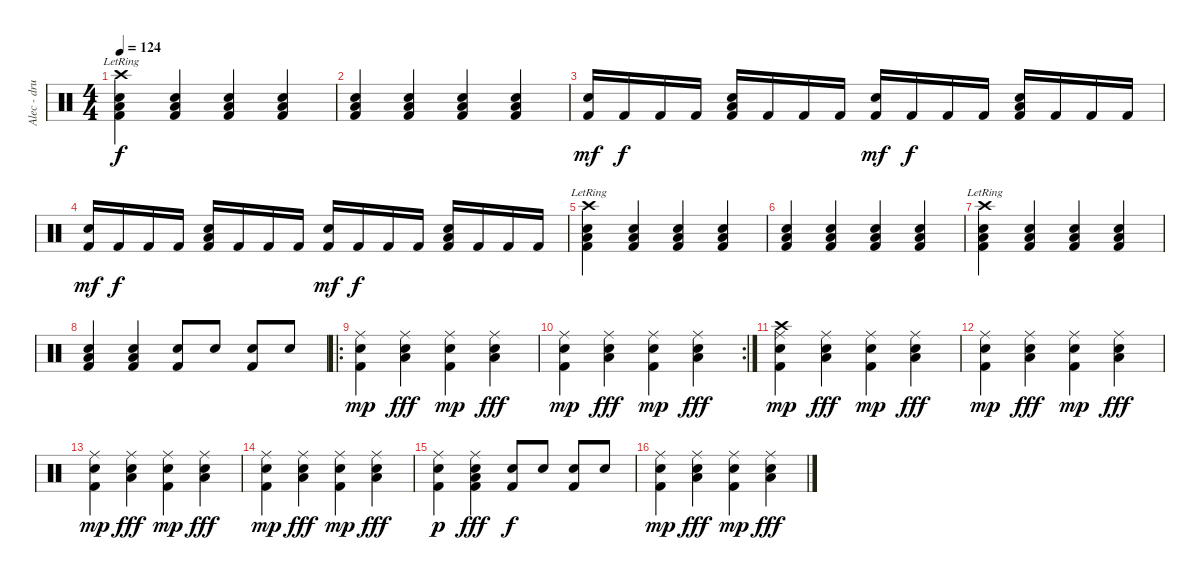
\track ("Alec - drums" "Alec - dru") {instrument percussion}
\staff {score}
\articulation defaults
\ts (4 4)
\tempo 124
\clef neutral
\ks c
("Crash high (hit)"{lr} "Kick (hit) 2" "Snare (hit) 2" "Low Tom (hit)").4{dy f} ("Kick (hit) 2" "Snare (hit) 2" "Low Tom (hit)").4 ("Kick (hit) 2" "Snare (hit) 2" "Low Tom (hit)").4 ("Kick (hit) 2" "Snare (hit) 2" "Low Tom (hit)").4 |
("Kick (hit) 2" "Snare (hit) 2" "Low Tom (hit)").4 ("Kick (hit) 2" "Snare (hit) 2" "Low Tom (hit)").4 ("Kick (hit) 2" "Snare (hit) 2" "Low Tom (hit)").4 ("Kick (hit) 2" "Snare (hit) 2" "Low Tom (hit)").4 |
("Snare (hit) 2" "Kick (hit) 2").16{dy mf} "Kick (hit) 2".16{dy f} "Kick (hit) 2".16 "Kick (hit) 2".16 ("Low Tom (hit)" "Snare (hit) 2" "Kick (hit) 2").16 "Kick (hit) 2".16 "Kick (hit) 2".16 "Kick (hit) 2".16 ("Snare (hit) 2" "Kick (hit) 2").16{dy mf} "Kick (hit) 2".16{dy f} "Kick (hit) 2".16 "Kick (hit) 2".16 ("Low Tom (hit)" "Snare (hit) 2" "Kick (hit) 2").16 "Kick (hit) 2".16 "Kick (hit) 2".16 "Kick (hit) 2".16 |
("Snare (hit) 2" "Kick (hit) 2").16{dy mf} "Kick (hit) 2".16{dy f} "Kick (hit) 2".16 "Kick (hit) 2".16 ("Low Tom (hit)" "Snare (hit) 2" "Kick (hit) 2").16 "Kick (hit) 2".16 "Kick (hit) 2".16 "Kick (hit) 2".16 ("Snare (hit) 2" "Kick (hit) 2").16{dy mf} "Kick (hit) 2".16{dy f} "Kick (hit) 2".16 "Kick (hit) 2".16 ("Low Tom (hit)" "Snare (hit) 2" "Kick (hit) 2").16 "Kick (hit) 2".16 "Kick (hit) 2".16 "Kick (hit) 2".16 |
("Crash high (hit)"{lr} "Kick (hit) 2" "Snare (hit) 2" "Low Tom (hit)").4 ("Kick (hit) 2" "Snare (hit) 2" "Low Tom (hit)").4 ("Kick (hit) 2" "Snare (hit) 2" "Low Tom (hit)").4 ("Kick (hit) 2" "Snare (hit) 2" "Low Tom (hit)").4 |
("Kick (hit) 2" "Snare (hit) 2" "Low Tom (hit)").4 ("Kick (hit) 2" "Snare (hit) 2" "Low Tom (hit)").4 ("Kick (hit) 2" "Snare (hit) 2" "Low Tom (hit)").4 ("Kick (hit) 2" "Snare (hit) 2" "Low Tom (hit)").4 |
("Crash high (hit)"{lr} "Kick (hit) 2" "Snare (hit) 2" "Low Tom (hit)").4 ("Kick (hit) 2" "Snare (hit) 2" "Low Tom (hit)").4 ("Kick (hit) 2" "Snare (hit) 2" "Low Tom (hit)").4 ("Kick (hit) 2" "Snare (hit) 2" "Low Tom (hit)").4 |
("Kick (hit) 2" "Snare (hit) 2" "Low Tom (hit)").4 ("Kick (hit) 2" "Snare (hit) 2" "Low Tom (hit)").4 ("Kick (hit) 2" "Snare (hit) 2").8 "Snare (hit) 2".8 ("Kick (hit) 2" "Snare (hit) 2").8 "Snare (hit) 2".8 |
\ro
("Ride (middle)" "Snare (hit) 2" "Kick (hit) 2").4{dy mp} ("Ride (middle)" "Low Tom (hit)" "Snare (hit) 2").4{dy fff} ("Ride (middle)" "Snare (hit) 2" "Kick (hit) 2").4{dy mp} ("Ride (middle)" "Low Tom (hit)" "Snare (hit) 2").4{dy fff} |
\rc 2
("Ride (middle)" "Snare (hit) 2" "Kick (hit) 2").4{dy mp} ("Ride (middle)" "Low Tom (hit)" "Snare (hit) 2").4{dy fff} ("Ride (middle)" "Snare (hit) 2" "Kick (hit) 2").4{dy mp} ("Ride (middle)" "Low Tom (hit)" "Snare (hit) 2").4{dy fff} |
("Crash high (hit)" "Ride (middle)" "Snare (hit) 2" "Kick (hit) 2").4{dy mp} ("Ride (middle)" "Low Tom (hit)" "Snare (hit) 2").4{dy fff} ("Ride (middle)" "Snare (hit) 2" "Kick (hit) 2").4{dy mp} ("Ride (middle)" "Low Tom (hit)" "Snare (hit) 2").4{dy fff} |
("Ride (middle)" "Snare (hit) 2" "Kick (hit) 2").4{dy mp} ("Ride (middle)" "Low Tom (hit)" "Snare (hit) 2").4{dy fff} ("Ride (middle)" "Snare (hit) 2" "Kick (hit) 2").4{dy mp} ("Ride (middle)" "Low Tom (hit)" "Snare (hit) 2").4{dy fff} |
("Ride (middle)" "Snare (hit) 2" "Kick (hit) 2").4{dy mp} ("Ride (middle)" "Low Tom (hit)" "Snare (hit) 2").4{dy fff} ("Ride (middle)" "Snare (hit) 2" "Kick (hit) 2").4{dy mp} ("Ride (middle)" "Low Tom (hit)" "Snare (hit) 2").4{dy fff} |
("Ride (middle)" "Snare (hit) 2" "Kick (hit) 2").4{dy mp} ("Ride (middle)" "Low Tom (hit)" "Snare (hit) 2").4{dy fff} ("Ride (middle)" "Snare (hit) 2" "Kick (hit) 2").4{dy mp} ("Ride (middle)" "Low Tom (hit)" "Snare (hit) 2").4{dy fff} |
("Ride (middle)" "Kick (hit) 2" "Snare (hit) 2").4{dy p} ("Ride (middle)" "Kick (hit) 2" "Snare (hit) 2" "Low Tom (hit)").4{dy fff} ("Kick (hit) 2" "Snare (hit) 2").8{dy f} "Snare (hit) 2".8 ("Kick (hit) 2" "Snare (hit) 2").8 "Snare (hit) 2".8 |
("Ride (middle)" "Snare (hit) 2" "Kick (hit) 2").4{dy mp} ("Ride (middle)" "Low Tom (hit)" "Snare (hit) 2").4{dy fff} ("Ride (middle)" "Snare (hit) 2" "Kick (hit) 2").4{dy mp} ("Ride (middle)" "Low Tom (hit)" "Snare (hit) 2").4{dy fff}
